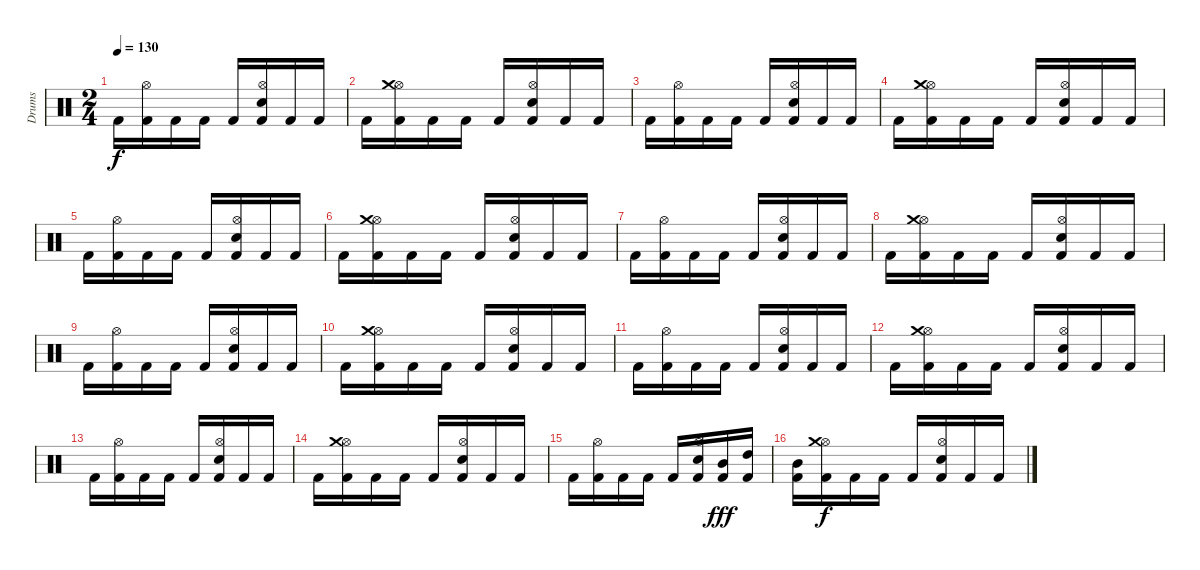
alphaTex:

\track ("Drums" "Drums") {instrument percussion}
\staff {score}
\articulation defaults
\ts (2 4)
\tempo 130
\clef neutral
\ks c "Kick (hit) 2".16{dy f}
("Kick (hit) 2" "Hi-Hat (open)").16 "Kick (hit) 2".16 "Kick (hit) 2".16 "Kick (hit) 2".16 ("Kick (hit) 2" "Electric Snare (hit)" "Hi-Hat (open)").16 "Kick (hit) 2".16 "Kick (hit) 2".16 |
"Kick (hit) 2".16 ("Kick (hit) 2" "Hi-Hat (open)" "Crash medium (hit)").16 "Kick (hit) 2".16 "Kick (hit) 2".16 "Kick (hit) 2".16 ("Kick (hit) 2" "Electric Snare (hit)" "Hi-Hat (open)").16 "Kick (hit) 2".16 "Kick (hit) 2".16 |
"Kick (hit) 2".16 ("Kick (hit) 2" "Hi-Hat (open)").16 "Kick (hit) 2".16 "Kick (hit) 2".16 "Kick (hit) 2".16 ("Kick (hit) 2" "Electric Snare (hit)" "Hi-Hat (open)").16 "Kick (hit) 2".16 "Kick (hit) 2".16 |
"Kick (hit) 2".16 ("Kick (hit) 2" "Hi-Hat (open)" "Crash medium (hit)").16 "Kick (hit) 2".16 "Kick (hit) 2".16 "Kick (hit) 2".16 ("Kick (hit) 2" "Electric Snare (hit)" "Hi-Hat (open)").16 "Kick (hit) 2".16 "Kick (hit) 2".16 |
"Kick (hit) 2".16 ("Kick (hit) 2" "Hi-Hat (open)").16 "Kick (hit) 2".16 "Kick (hit) 2".16 "Kick (hit) 2".16 ("Kick (hit) 2" "Electric Snare (hit)" "Hi-Hat (open)").16 "Kick (hit) 2".16 "Kick (hit) 2".16 |
"Kick (hit) 2".16 ("Kick (hit) 2" "Hi-Hat (open)" "Crash medium (hit)").16 "Kick (hit) 2".16 "Kick (hit) 2".16 "Kick (hit) 2".16 ("Kick (hit) 2" "Electric Snare (hit)" "Hi-Hat (open)").16 "Kick (hit) 2".16 "Kick (hit) 2".16 |
"Kick (hit) 2".16 ("Kick (hit) 2" "Hi-Hat (open)").16 "Kick (hit) 2".16 "Kick (hit) 2".16 "Kick (hit) 2".16 ("Kick (hit) 2" "Electric Snare (hit)" "Hi-Hat (open)").16 "Kick (hit) 2".16 "Kick (hit) 2".16 |
"Kick (hit) 2".16 ("Kick (hit) 2" "Hi-Hat (open)" "Crash medium (hit)").16 "Kick (hit) 2".16 "Kick (hit) 2".16 "Kick (hit) 2".16 ("Kick (hit) 2" "Electric Snare (hit)" "Hi-Hat (open)").16 "Kick (hit) 2".16 "Kick (hit) 2".16 |
"Kick (hit) 2".16 ("Kick (hit) 2" "Hi-Hat (open)").16 "Kick (hit) 2".16 "Kick (hit) 2".16 "Kick (hit) 2".16 ("Kick (hit) 2" "Electric Snare (hit)" "Hi-Hat (open)").16 "Kick (hit) 2".16 "Kick (hit) 2".16 |
"Kick (hit) 2".16 ("Kick (hit) 2" "Hi-Hat (open)" "Crash medium (hit)").16 "Kick (hit) 2".16 "Kick (hit) 2".16 "Kick (hit) 2".16 ("Kick (hit) 2" "Electric Snare (hit)" "Hi-Hat (open)").16 "Kick (hit) 2".16 "Kick (hit) 2".16 |
"Kick (hit) 2".16 ("Kick (hit) 2" "Hi-Hat (open)").16 "Kick (hit) 2".16 "Kick (hit) 2".16 "Kick (hit) 2".16 ("Kick (hit) 2" "Electric Snare (hit)" "Hi-Hat (open)").16 "Kick (hit) 2".16 "Kick (hit) 2".16 |
"Kick (hit) 2".16 ("Kick (hit) 2" "Hi-Hat (open)" "Crash medium (hit)").16 "Kick (hit) 2".16 "Kick (hit) 2".16 "Kick (hit) 2".16 ("Kick (hit) 2" "Electric Snare (hit)" "Hi-Hat (open)").16 "Kick (hit) 2".16 "Kick (hit) 2".16 |
"Kick (hit) 2".16 ("Kick (hit) 2" "Hi-Hat (open)").16 "Kick (hit) 2".16 "Kick (hit) 2".16 "Kick (hit) 2".16 ("Kick (hit) 2" "Electric Snare (hit)" "Hi-Hat (open)").16 "Kick (hit) 2".16 "Kick (hit) 2".16 |
"Kick (hit) 2".16 ("Kick (hit) 2" "Hi-Hat (open)" "Crash medium (hit)").16 "Kick (hit) 2".16 "Kick (hit) 2".16 "Kick (hit) 2".16 ("Kick (hit) 2" "Electric Snare (hit)" "Hi-Hat (open)").16 "Kick (hit) 2".16 "Kick (hit) 2".16 |
"Kick (hit) 2".16 ("Kick (hit) 2" "Hi-Hat (open)").16 "Kick (hit) 2".16 "Kick (hit) 2".16 "Kick (hit) 2".16 ("Kick (hit) 2" "Hi-Hat (open)" "Electric Snare (hit)").16 ("Kick (hit) 2" "Mid Tom (hit)").16{dy fff} ("Kick (hit) 2" "High Tom (hit)").16 |
("Kick (hit) 2" "Mid Tom (hit)").16 ("Kick (hit) 2" "Hi-Hat (open)" "Crash medium (hit)").16{dy f} "Kick (hit) 2".16 "Kick (hit) 2".16 "Kick (hit) 2".16 ("Kick (hit) 2" "Electric Snare (hit)" "Hi-Hat (open)").16 "Kick (hit) 2".16 "Kick (hit) 2".16
